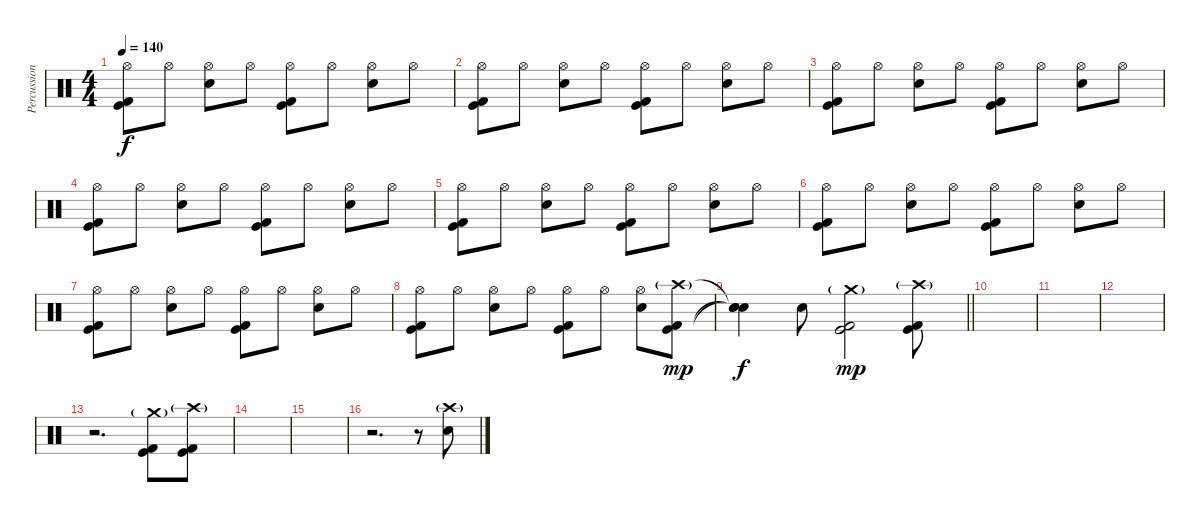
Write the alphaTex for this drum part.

\track ("Percussion" "Percussion") {instrument percussion}
\staff {score}
\articulation defaults
\ts (4 4)
\tempo 140
\clef neutral
\ks c
("Hi-Hat (open)" "Kick (hit)" "Kick (hit) 2").8{dy f} "Hi-Hat (open)".8 ("Hi-Hat (open)" "Electric Snare (hit)").8 "Hi-Hat (open)".8 ("Hi-Hat (open)" "Kick (hit)" "Kick (hit) 2").8 "Hi-Hat (open)".8 ("Hi-Hat (open)" "Electric Snare (hit)").8 "Hi-Hat (open)".8 |
("Hi-Hat (open)" "Kick (hit)" "Kick (hit) 2").8 "Hi-Hat (open)".8 ("Hi-Hat (open)" "Electric Snare (hit)").8 "Hi-Hat (open)".8 ("Hi-Hat (open)" "Kick (hit)" "Kick (hit) 2").8 "Hi-Hat (open)".8 ("Hi-Hat (open)" "Electric Snare (hit)").8 "Hi-Hat (open)".8 |
("Hi-Hat (open)" "Kick (hit)" "Kick (hit) 2").8 "Hi-Hat (open)".8 ("Hi-Hat (open)" "Electric Snare (hit)").8 "Hi-Hat (open)".8 ("Hi-Hat (open)" "Kick (hit)" "Kick (hit) 2").8 "Hi-Hat (open)".8 ("Hi-Hat (open)" "Electric Snare (hit)").8 "Hi-Hat (open)".8 |
("Hi-Hat (open)" "Kick (hit)" "Kick (hit) 2").8 "Hi-Hat (open)".8 ("Hi-Hat (open)" "Electric Snare (hit)").8 "Hi-Hat (open)".8 ("Hi-Hat (open)" "Kick (hit)" "Kick (hit) 2").8 "Hi-Hat (open)".8 ("Hi-Hat (open)" "Electric Snare (hit)").8 "Hi-Hat (open)".8 |
("Hi-Hat (open)" "Kick (hit)" "Kick (hit) 2").8 "Hi-Hat (open)".8 ("Hi-Hat (open)" "Electric Snare (hit)").8 "Hi-Hat (open)".8 ("Hi-Hat (open)" "Kick (hit)" "Kick (hit) 2").8 "Hi-Hat (open)".8 ("Hi-Hat (open)" "Electric Snare (hit)").8 "Hi-Hat (open)".8 |
("Hi-Hat (open)" "Kick (hit)" "Kick (hit) 2").8 "Hi-Hat (open)".8 ("Hi-Hat (open)" "Electric Snare (hit)").8 "Hi-Hat (open)".8 ("Hi-Hat (open)" "Kick (hit)" "Kick (hit) 2").8 "Hi-Hat (open)".8 ("Hi-Hat (open)" "Electric Snare (hit)").8 "Hi-Hat (open)".8 |
("Hi-Hat (open)" "Kick (hit)" "Kick (hit) 2").8 "Hi-Hat (open)".8 ("Hi-Hat (open)" "Electric Snare (hit)").8 "Hi-Hat (open)".8 ("Hi-Hat (open)" "Kick (hit)" "Kick (hit) 2").8 "Hi-Hat (open)".8 ("Hi-Hat (open)" "Electric Snare (hit)").8 "Hi-Hat (open)".8 |
("Hi-Hat (open)" "Kick (hit)" "Kick (hit) 2").8 "Hi-Hat (open)".8 ("Hi-Hat (open)" "Electric Snare (hit)").8 "Hi-Hat (open)".8 ("Hi-Hat (open)" "Kick (hit)" "Kick (hit) 2").8 "Hi-Hat (open)".8 ("Hi-Hat (open)" "Electric Snare (hit)").8 ("Crash high (hit)"{g} "Kick (hit)" "Kick (hit) 2").8{dy mp} |
\barLineRight lightlight
("Snare (hit)"{t} "Snare (hit)"{t} "Snare (hit)"{t}).4{dy f} "Electric Snare (hit)".8 ("Crash medium (hit)"{g} "Kick (hit)" "Kick (hit) 2").2{dy mp} ("Crash high (hit)"{g} "Kick (hit)" "Kick (hit) 2").8 |
\section ("" "")
|
|
|
r.2{d} ("Crash medium (hit)"{g} "Kick (hit)" "Kick (hit) 2").8 ("Crash high (hit)"{g} "Kick (hit)" "Kick (hit) 2").8 |
|
|
r.2{d} r.8 ("Crash high (hit)"{g} "Electric Snare (hit)").8
